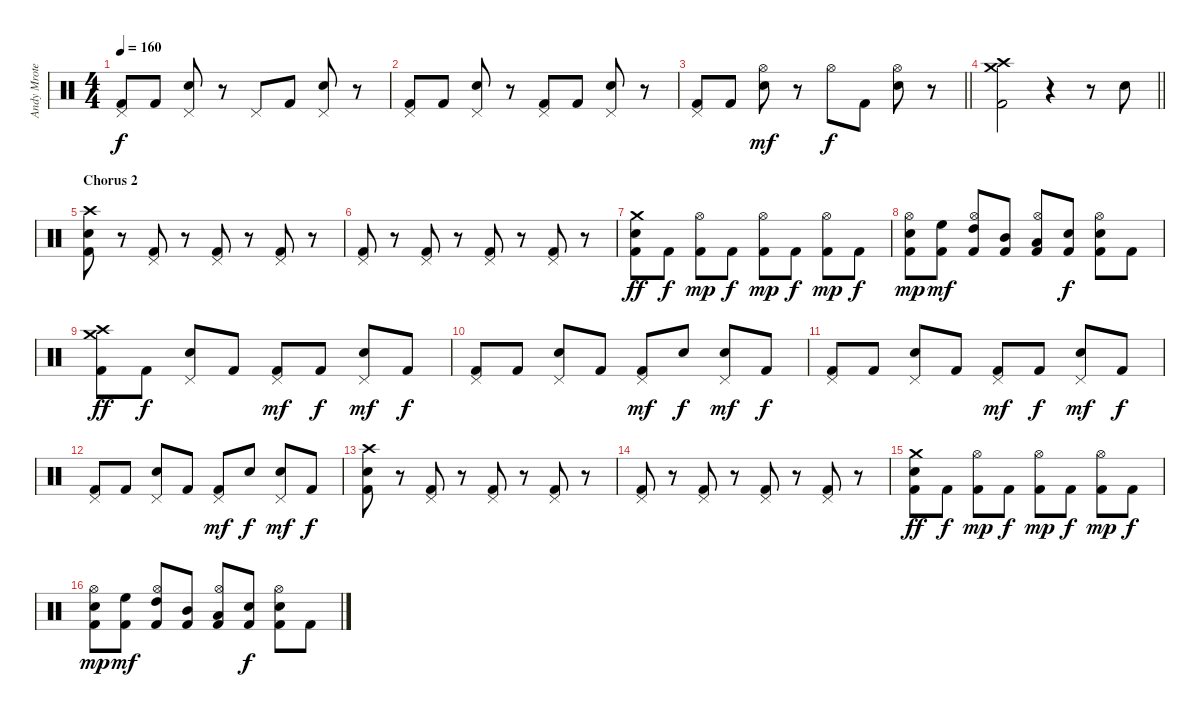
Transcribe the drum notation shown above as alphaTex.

\track ("Andy Mrotek (Drums)" "Andy Mrote") {instrument percussion}
\staff {score}
\articulation defaults
\ts (4 4)
\tempo 160
\clef neutral
\ks c
("Pedal Hi-Hat (hit)" "Kick (hit) 2").8{dy f} "Kick (hit) 2".8 ("Pedal Hi-Hat (hit)" "Electric Snare (hit)").8 r.8 "Pedal Hi-Hat (hit)".8 "Kick (hit) 2".8 ("Pedal Hi-Hat (hit)" "Electric Snare (hit)").8 r.8 |
("Pedal Hi-Hat (hit)" "Kick (hit) 2").8 "Kick (hit) 2".8 ("Pedal Hi-Hat (hit)" "Electric Snare (hit)").8 r.8 ("Pedal Hi-Hat (hit)" "Kick (hit) 2").8 "Kick (hit) 2".8 ("Pedal Hi-Hat (hit)" "Electric Snare (hit)").8 r.8 |
\barLineRight lightlight
("Pedal Hi-Hat (hit)" "Kick (hit) 2").8 "Kick (hit) 2".8 ("Hi-Hat (open)" "Electric Snare (hit)").8{dy mf} r.8 "Hi-Hat (open)".8{dy f} "Kick (hit) 2".8 ("Hi-Hat (open)" "Electric Snare (hit)").8 r.8 |
\barLineRight lightlight
("Crash high (hit)" "Crash medium (hit)" "Kick (hit) 2").2 r.4 r.8 "Electric Snare (hit)".8 |
\section ("" "Chorus 2")
("Crash high (hit)" "Electric Snare (hit)" "Kick (hit) 2").8 r.8 ("Pedal Hi-Hat (hit)" "Kick (hit) 2").8 r.8 ("Pedal Hi-Hat (hit)" "Kick (hit) 2").8 r.8 ("Pedal Hi-Hat (hit)" "Kick (hit) 2").8 r.8 |
("Pedal Hi-Hat (hit)" "Kick (hit) 2").8 r.8 ("Pedal Hi-Hat (hit)" "Kick (hit) 2").8 r.8 ("Pedal Hi-Hat (hit)" "Kick (hit) 2").8 r.8 ("Pedal Hi-Hat (hit)" "Kick (hit) 2").8 r.8 |
("Crash medium (hit)" "Electric Snare (hit)" "Kick (hit) 2").8{dy ff} "Kick (hit) 2".8{dy f} ("Hi-Hat (open)" "Kick (hit) 2").8{dy mp} "Kick (hit) 2".8{dy f} ("Hi-Hat (open)" "Kick (hit) 2").8{dy mp} "Kick (hit) 2".8{dy f} ("Hi-Hat (open)" "Kick (hit) 2").8{dy mp} "Kick (hit) 2".8{dy f} |
("Hi-Hat (open)" "Electric Snare (hit)" "Kick (hit) 2").8{dy mp} ("High Floor Tom (hit)" "Kick (hit) 2").8{dy mf} ("Hi-Hat (open)" "High Tom (hit)" "Kick (hit) 2").8 ("Mid Tom (hit)" "Kick (hit) 2").8 ("Hi-Hat (open)" "Low Tom (hit)" "Kick (hit) 2").8 ("Electric Snare (hit)" "Kick (hit) 2").8{dy f} ("Hi-Hat (open)" "Electric Snare (hit)" "Kick (hit) 2").8 "Kick (hit) 2".8 |
("Crash high (hit)" "Crash medium (hit)" "Kick (hit) 2").8{dy ff} "Kick (hit) 2".8{dy f} ("Pedal Hi-Hat (hit)" "Electric Snare (hit)").8 "Kick (hit) 2".8 ("Pedal Hi-Hat (hit)" "Kick (hit) 2").8{dy mf} "Kick (hit) 2".8{dy f} ("Pedal Hi-Hat (hit)" "Electric Snare (hit)").8{dy mf} "Kick (hit) 2".8{dy f} |
("Pedal Hi-Hat (hit)" "Kick (hit) 2").8 "Kick (hit) 2".8 ("Pedal Hi-Hat (hit)" "Electric Snare (hit)").8 "Kick (hit) 2".8 ("Pedal Hi-Hat (hit)" "Kick (hit) 2").8{dy mf} "Electric Snare (hit)".8{dy f} ("Pedal Hi-Hat (hit)" "Electric Snare (hit)").8{dy mf} "Kick (hit) 2".8{dy f} |
("Pedal Hi-Hat (hit)" "Kick (hit) 2").8 "Kick (hit) 2".8 ("Pedal Hi-Hat (hit)" "Electric Snare (hit)").8 "Kick (hit) 2".8 ("Pedal Hi-Hat (hit)" "Kick (hit) 2").8{dy mf} "Kick (hit) 2".8{dy f} ("Pedal Hi-Hat (hit)" "Electric Snare (hit)").8{dy mf} "Kick (hit) 2".8{dy f} |
("Pedal Hi-Hat (hit)" "Kick (hit) 2").8 "Kick (hit) 2".8 ("Pedal Hi-Hat (hit)" "Electric Snare (hit)").8 "Kick (hit) 2".8 ("Pedal Hi-Hat (hit)" "Kick (hit) 2").8{dy mf} "Electric Snare (hit)".8{dy f} ("Pedal Hi-Hat (hit)" "Electric Snare (hit)").8{dy mf} "Kick (hit) 2".8{dy f} |
("Crash high (hit)" "Electric Snare (hit)" "Kick (hit) 2").8 r.8 ("Pedal Hi-Hat (hit)" "Kick (hit) 2").8 r.8 ("Pedal Hi-Hat (hit)" "Kick (hit) 2").8 r.8 ("Pedal Hi-Hat (hit)" "Kick (hit) 2").8 r.8 |
("Pedal Hi-Hat (hit)" "Kick (hit) 2").8 r.8 ("Pedal Hi-Hat (hit)" "Kick (hit) 2").8 r.8 ("Pedal Hi-Hat (hit)" "Kick (hit) 2").8 r.8 ("Pedal Hi-Hat (hit)" "Kick (hit) 2").8 r.8 |
("Crash medium (hit)" "Electric Snare (hit)" "Kick (hit) 2").8{dy ff} "Kick (hit) 2".8{dy f} ("Hi-Hat (open)" "Kick (hit) 2").8{dy mp} "Kick (hit) 2".8{dy f} ("Hi-Hat (open)" "Kick (hit) 2").8{dy mp} "Kick (hit) 2".8{dy f} ("Hi-Hat (open)" "Kick (hit) 2").8{dy mp} "Kick (hit) 2".8{dy f} |
("Hi-Hat (open)" "Electric Snare (hit)" "Kick (hit) 2").8{dy mp} ("High Floor Tom (hit)" "Kick (hit) 2").8{dy mf} ("Hi-Hat (open)" "High Tom (hit)" "Kick (hit) 2").8 ("Mid Tom (hit)" "Kick (hit) 2").8 ("Hi-Hat (open)" "Low Tom (hit)" "Kick (hit) 2").8 ("Electric Snare (hit)" "Kick (hit) 2").8{dy f} ("Hi-Hat (open)" "Electric Snare (hit)" "Kick (hit) 2").8 "Kick (hit) 2".8
